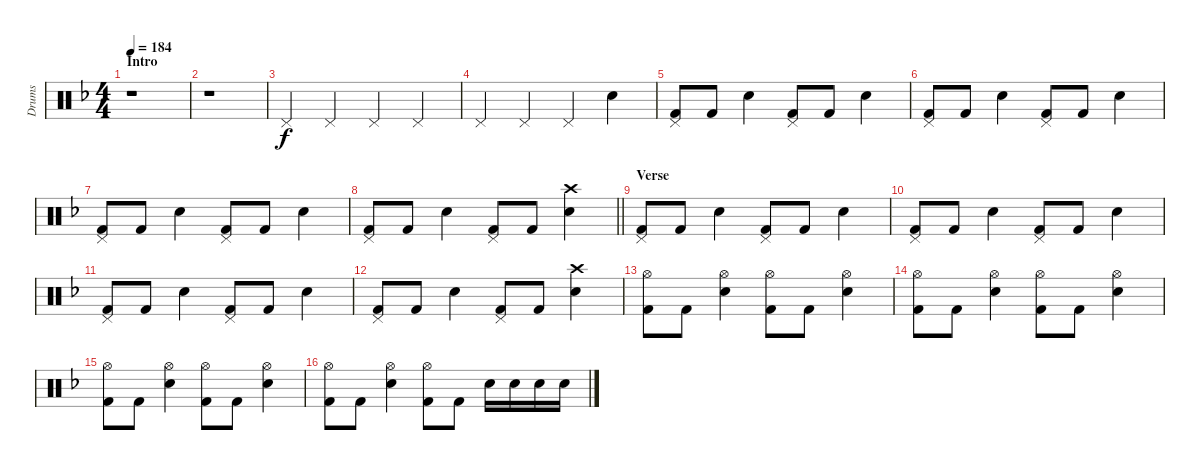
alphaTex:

\track ("Drums" "Drums") {instrument percussion}
\staff {score}
\articulation defaults
\ts (4 4)
\section ("" "Intro")
\tempo 184
\clef neutral
\ks f
r.1{dy f} |
r.1 |
"Pedal Hi-Hat (hit)".4 "Pedal Hi-Hat (hit)".4 "Pedal Hi-Hat (hit)".4 "Pedal Hi-Hat (hit)".4 |
"Pedal Hi-Hat (hit)".4 "Pedal Hi-Hat (hit)".4 "Pedal Hi-Hat (hit)".4 "Electric Snare (hit)".4 |
("Pedal Hi-Hat (hit)" "Kick (hit) 2").8 "Kick (hit) 2".8 "Electric Snare (hit)".4 ("Pedal Hi-Hat (hit)" "Kick (hit) 2").8 "Kick (hit) 2".8 "Electric Snare (hit)".4 |
("Pedal Hi-Hat (hit)" "Kick (hit) 2").8 "Kick (hit) 2".8 "Electric Snare (hit)".4 ("Pedal Hi-Hat (hit)" "Kick (hit) 2").8 "Kick (hit) 2".8 "Electric Snare (hit)".4 |
("Pedal Hi-Hat (hit)" "Kick (hit) 2").8 "Kick (hit) 2".8 "Electric Snare (hit)".4 ("Pedal Hi-Hat (hit)" "Kick (hit) 2").8 "Kick (hit) 2".8 "Electric Snare (hit)".4 |
\barLineRight lightlight
("Pedal Hi-Hat (hit)" "Kick (hit) 2").8 "Kick (hit) 2".8 "Electric Snare (hit)".4 ("Pedal Hi-Hat (hit)" "Kick (hit) 2").8 "Kick (hit) 2".8 ("Crash high (hit)" "Electric Snare (hit)").4 |
\section ("" "Verse")
("Pedal Hi-Hat (hit)" "Kick (hit) 2").8 "Kick (hit) 2".8 "Electric Snare (hit)".4 ("Pedal Hi-Hat (hit)" "Kick (hit) 2").8 "Kick (hit) 2".8 "Electric Snare (hit)".4 |
("Pedal Hi-Hat (hit)" "Kick (hit) 2").8 "Kick (hit) 2".8 "Electric Snare (hit)".4 ("Pedal Hi-Hat (hit)" "Kick (hit) 2").8 "Kick (hit) 2".8 "Electric Snare (hit)".4 |
("Pedal Hi-Hat (hit)" "Kick (hit) 2").8 "Kick (hit) 2".8 "Electric Snare (hit)".4 ("Pedal Hi-Hat (hit)" "Kick (hit) 2").8 "Kick (hit) 2".8 "Electric Snare (hit)".4 |
("Pedal Hi-Hat (hit)" "Kick (hit) 2").8 "Kick (hit) 2".8 "Electric Snare (hit)".4 ("Pedal Hi-Hat (hit)" "Kick (hit) 2").8 "Kick (hit) 2".8 ("Crash high (hit)" "Electric Snare (hit)").4 |
("Hi-Hat (open)" "Kick (hit) 2").8 "Kick (hit) 2".8 ("Electric Snare (hit)" "Hi-Hat (open)").4 ("Hi-Hat (open)" "Kick (hit) 2").8 "Kick (hit) 2".8 ("Electric Snare (hit)" "Hi-Hat (open)").4 |
("Hi-Hat (open)" "Kick (hit) 2").8 "Kick (hit) 2".8 ("Electric Snare (hit)" "Hi-Hat (open)").4 ("Hi-Hat (open)" "Kick (hit) 2").8 "Kick (hit) 2".8 ("Electric Snare (hit)" "Hi-Hat (open)").4 |
("Hi-Hat (open)" "Kick (hit) 2").8 "Kick (hit) 2".8 ("Electric Snare (hit)" "Hi-Hat (open)").4 ("Hi-Hat (open)" "Kick (hit) 2").8 "Kick (hit) 2".8 ("Electric Snare (hit)" "Hi-Hat (open)").4 |
("Hi-Hat (open)" "Kick (hit) 2").8 "Kick (hit) 2".8 ("Electric Snare (hit)" "Hi-Hat (open)").4 ("Hi-Hat (open)" "Kick (hit) 2").8 "Kick (hit) 2".8 "Electric Snare (hit)".16 "Electric Snare (hit)".16 "Electric Snare (hit)".16 "Electric Snare (hit)".16
